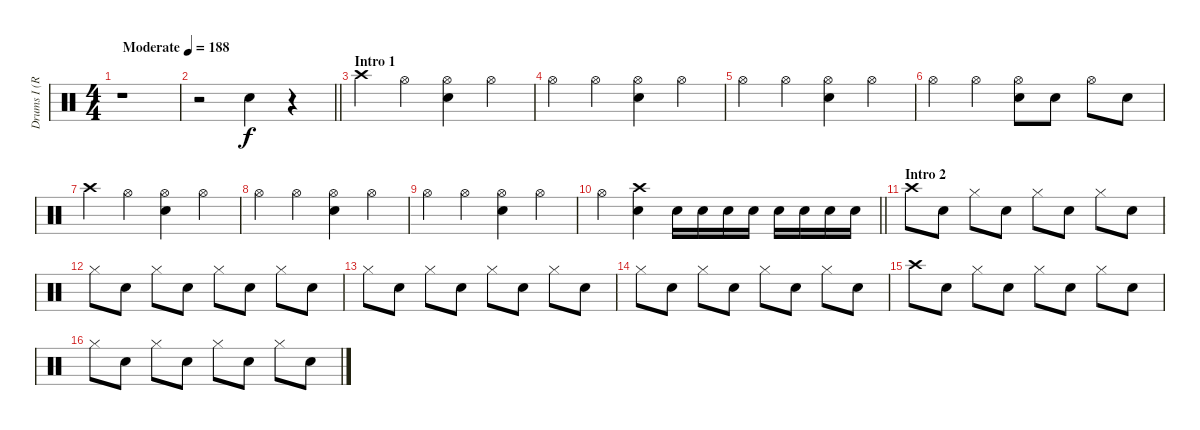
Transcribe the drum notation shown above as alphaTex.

\track ("Drums I (Ruka)" "Drums I (R") {instrument percussion}
\staff {score}
\articulation defaults
\ts (4 4)
\tempo (188 "Moderate")
\clef neutral
\ks c
r.1{dy f} |
\barLineRight lightlight
r.2 "Snare (hit) 2".4 r.4 |
\section ("" "Intro 1")
"Crash high (hit)".4 "Hi-Hat (open)".4 ("Hi-Hat (open)" "Snare (hit) 2").4 "Hi-Hat (open)".4 |
"Hi-Hat (open)".4 "Hi-Hat (open)".4 ("Hi-Hat (open)" "Snare (hit) 2").4 "Hi-Hat (open)".4 |
"Hi-Hat (open)".4 "Hi-Hat (open)".4 ("Hi-Hat (open)" "Snare (hit) 2").4 "Hi-Hat (open)".4 |
"Hi-Hat (open)".4 "Hi-Hat (open)".4 ("Hi-Hat (open)" "Snare (hit) 2").8 "Snare (hit) 2".8 "Hi-Hat (open)".8 "Snare (hit) 2".8 |
"Crash high (hit)".4 "Hi-Hat (open)".4 ("Hi-Hat (open)" "Snare (hit) 2").4 "Hi-Hat (open)".4 |
"Hi-Hat (open)".4 "Hi-Hat (open)".4 ("Hi-Hat (open)" "Snare (hit) 2").4 "Hi-Hat (open)".4 |
"Hi-Hat (open)".4 "Hi-Hat (open)".4 ("Hi-Hat (open)" "Snare (hit) 2").4 "Hi-Hat (open)".4 |
\barLineRight lightlight "Hi-Hat (open)".4
("Crash high (hit)" "Snare (hit) 2").4 "Snare (hit) 2".16 "Snare (hit) 2".16 "Snare (hit) 2".16 "Snare (hit) 2".16 "Snare (hit) 2".16 "Snare (hit) 2".16 "Snare (hit) 2".16 "Snare (hit) 2".16 |
\section ("" "Intro 2")
"Crash high (hit)".8 "Snare (hit) 2".8 "Hi-Hat (closed)".8 "Snare (hit) 2".8 "Hi-Hat (closed)".8 "Snare (hit) 2".8 "Hi-Hat (closed)".8 "Snare (hit) 2".8 |
"Hi-Hat (closed)".8 "Snare (hit) 2".8 "Hi-Hat (closed)".8 "Snare (hit) 2".8 "Hi-Hat (closed)".8 "Snare (hit) 2".8 "Hi-Hat (closed)".8 "Snare (hit) 2".8 |
"Hi-Hat (closed)".8 "Snare (hit) 2".8 "Hi-Hat (closed)".8 "Snare (hit) 2".8 "Hi-Hat (closed)".8 "Snare (hit) 2".8 "Hi-Hat (closed)".8 "Snare (hit) 2".8 |
"Hi-Hat (closed)".8 "Snare (hit) 2".8 "Hi-Hat (closed)".8 "Snare (hit) 2".8 "Hi-Hat (closed)".8 "Snare (hit) 2".8 "Hi-Hat (closed)".8 "Snare (hit) 2".8 |
"Crash high (hit)".8 "Snare (hit) 2".8 "Hi-Hat (closed)".8 "Snare (hit) 2".8 "Hi-Hat (closed)".8 "Snare (hit) 2".8 "Hi-Hat (closed)".8 "Snare (hit) 2".8 |
"Hi-Hat (closed)".8 "Snare (hit) 2".8 "Hi-Hat (closed)".8 "Snare (hit) 2".8 "Hi-Hat (closed)".8 "Snare (hit) 2".8 "Hi-Hat (closed)".8 "Snare (hit) 2".8
